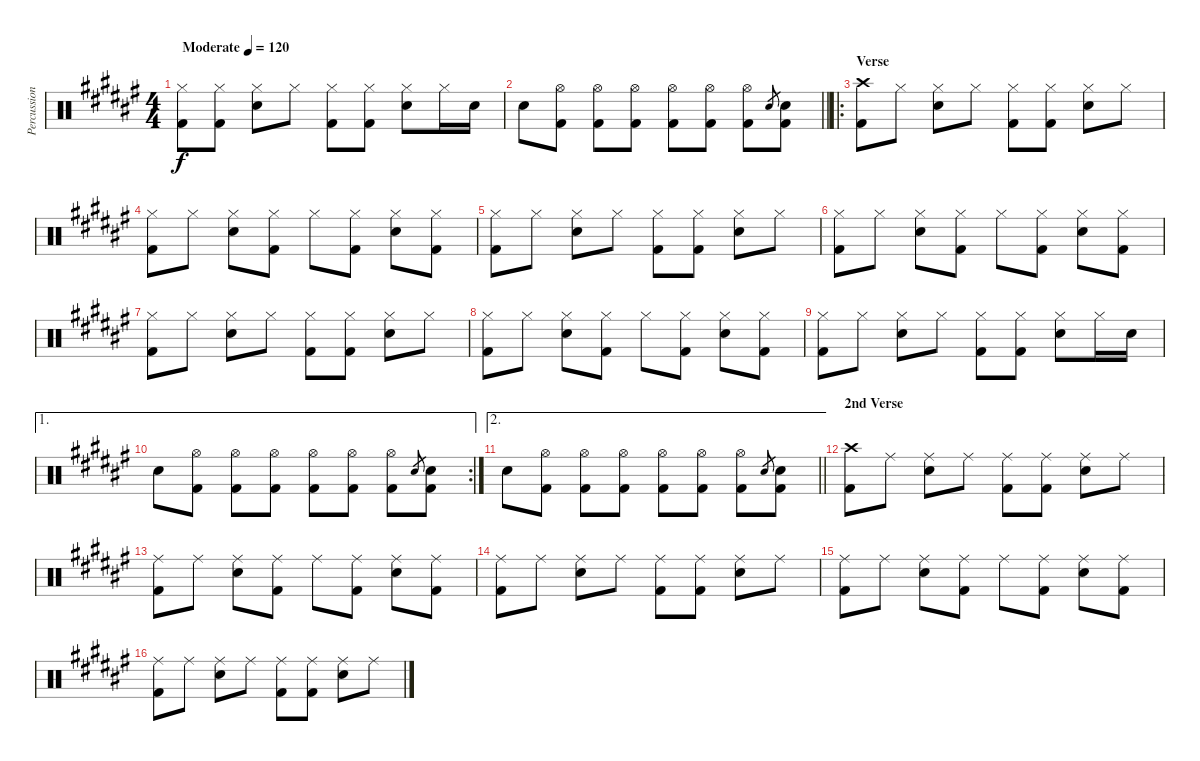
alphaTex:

\track ("Percussion" "Percussion") {instrument percussion}
\staff {score}
\articulation defaults
\ts (4 4)
\tempo (120 "Moderate")
\clef neutral
\ks f#
("Hi-Hat (closed)" "Kick (hit) 2").8{dy f} ("Hi-Hat (closed)" "Kick (hit) 2").8 ("Hi-Hat (closed)" "Electric Snare (hit)").8 "Hi-Hat (closed)".8 ("Hi-Hat (closed)" "Kick (hit) 2").8 ("Hi-Hat (closed)" "Kick (hit) 2").8 ("Hi-Hat (closed)" "Electric Snare (hit)").8 "Hi-Hat (closed)".16 "Electric Snare (hit)".16 |
\barLineRight lightlight "Electric Snare (hit)".8
("Hi-Hat (open)" "Kick (hit) 2").8 ("Hi-Hat (open)" "Kick (hit) 2").8 ("Hi-Hat (open)" "Kick (hit) 2").8 ("Hi-Hat (open)" "Kick (hit) 2").8 ("Hi-Hat (open)" "Kick (hit) 2").8 ("Hi-Hat (open)" "Kick (hit) 2").8 "Electric Snare (hit)".8{gr} ("Electric Snare (hit)" "Kick (hit) 2").8 |
\ro
\section ("" "Verse")
("Crash high (hit)" "Kick (hit) 2").8 "Hi-Hat (closed)".8 ("Hi-Hat (closed)" "Electric Snare (hit)").8 "Hi-Hat (closed)".8 ("Hi-Hat (closed)" "Kick (hit) 2").8 ("Hi-Hat (closed)" "Kick (hit) 2").8 ("Hi-Hat (closed)" "Electric Snare (hit)").8 "Hi-Hat (closed)".8 |
("Hi-Hat (closed)" "Kick (hit) 2").8 "Hi-Hat (closed)".8 ("Hi-Hat (closed)" "Electric Snare (hit)").8 ("Hi-Hat (closed)" "Kick (hit) 2").8 "Hi-Hat (closed)".8 ("Hi-Hat (closed)" "Kick (hit) 2").8 ("Hi-Hat (closed)" "Electric Snare (hit)").8 ("Hi-Hat (closed)" "Kick (hit) 2").8 |
("Hi-Hat (closed)" "Kick (hit) 2").8 "Hi-Hat (closed)".8 ("Hi-Hat (closed)" "Electric Snare (hit)").8 "Hi-Hat (closed)".8 ("Hi-Hat (closed)" "Kick (hit) 2").8 ("Hi-Hat (closed)" "Kick (hit) 2").8 ("Hi-Hat (closed)" "Electric Snare (hit)").8 "Hi-Hat (closed)".8 |
("Hi-Hat (closed)" "Kick (hit) 2").8 "Hi-Hat (closed)".8 ("Hi-Hat (closed)" "Electric Snare (hit)").8 ("Hi-Hat (closed)" "Kick (hit) 2").8 "Hi-Hat (closed)".8 ("Hi-Hat (closed)" "Kick (hit) 2").8 ("Hi-Hat (closed)" "Electric Snare (hit)").8 ("Hi-Hat (closed)" "Kick (hit) 2").8 |
("Hi-Hat (closed)" "Kick (hit) 2").8 "Hi-Hat (closed)".8 ("Hi-Hat (closed)" "Electric Snare (hit)").8 "Hi-Hat (closed)".8 ("Hi-Hat (closed)" "Kick (hit) 2").8 ("Hi-Hat (closed)" "Kick (hit) 2").8 ("Hi-Hat (closed)" "Electric Snare (hit)").8 "Hi-Hat (closed)".8 |
("Hi-Hat (closed)" "Kick (hit) 2").8 "Hi-Hat (closed)".8 ("Hi-Hat (closed)" "Electric Snare (hit)").8 ("Hi-Hat (closed)" "Kick (hit) 2").8 "Hi-Hat (closed)".8 ("Hi-Hat (closed)" "Kick (hit) 2").8 ("Hi-Hat (closed)" "Electric Snare (hit)").8 ("Hi-Hat (closed)" "Kick (hit) 2").8 |
("Hi-Hat (closed)" "Kick (hit) 2").8 "Hi-Hat (closed)".8 ("Hi-Hat (closed)" "Electric Snare (hit)").8 "Hi-Hat (closed)".8 ("Hi-Hat (closed)" "Kick (hit) 2").8 ("Hi-Hat (closed)" "Kick (hit) 2").8 ("Hi-Hat (closed)" "Electric Snare (hit)").8 "Hi-Hat (closed)".16 "Electric Snare (hit)".16 |
\ae 1
\rc 2 "Electric Snare (hit)".8
("Hi-Hat (open)" "Kick (hit) 2").8 ("Hi-Hat (open)" "Kick (hit) 2").8 ("Hi-Hat (open)" "Kick (hit) 2").8 ("Hi-Hat (open)" "Kick (hit) 2").8 ("Hi-Hat (open)" "Kick (hit) 2").8 ("Hi-Hat (open)" "Kick (hit) 2").8 "Electric Snare (hit)".8{gr} ("Electric Snare (hit)" "Kick (hit) 2").8 |
\ae 2
\barLineRight lightlight "Electric Snare (hit)".8
("Hi-Hat (open)" "Kick (hit) 2").8 ("Hi-Hat (open)" "Kick (hit) 2").8 ("Hi-Hat (open)" "Kick (hit) 2").8 ("Hi-Hat (open)" "Kick (hit) 2").8 ("Hi-Hat (open)" "Kick (hit) 2").8 ("Hi-Hat (open)" "Kick (hit) 2").8 "Electric Snare (hit)".8{gr} ("Electric Snare (hit)" "Kick (hit) 2").8 |
\section ("" "2nd Verse")
("Crash high (hit)" "Kick (hit) 2").8 "Ride (middle)".8 ("Ride (middle)" "Electric Snare (hit)").8 "Ride (middle)".8 ("Ride (middle)" "Kick (hit) 2").8 ("Ride (middle)" "Kick (hit) 2").8 ("Ride (middle)" "Electric Snare (hit)").8 "Ride (middle)".8 |
("Ride (middle)" "Kick (hit) 2").8 "Ride (middle)".8 ("Ride (middle)" "Electric Snare (hit)").8 ("Ride (middle)" "Kick (hit) 2").8 "Ride (middle)".8 ("Ride (middle)" "Kick (hit) 2").8 ("Ride (middle)" "Electric Snare (hit)").8 ("Ride (middle)" "Kick (hit) 2").8 |
("Ride (middle)" "Kick (hit) 2").8 "Ride (middle)".8 ("Ride (middle)" "Electric Snare (hit)").8 "Ride (middle)".8 ("Ride (middle)" "Kick (hit) 2").8 ("Ride (middle)" "Kick (hit) 2").8 ("Ride (middle)" "Electric Snare (hit)").8 "Ride (middle)".8 |
("Ride (middle)" "Kick (hit) 2").8 "Ride (middle)".8 ("Ride (middle)" "Electric Snare (hit)").8 ("Ride (middle)" "Kick (hit) 2").8 "Ride (middle)".8 ("Ride (middle)" "Kick (hit) 2").8 ("Ride (middle)" "Electric Snare (hit)").8 ("Ride (middle)" "Kick (hit) 2").8 |
("Ride (middle)" "Kick (hit) 2").8 "Ride (middle)".8 ("Ride (middle)" "Electric Snare (hit)").8 "Ride (middle)".8 ("Ride (middle)" "Kick (hit) 2").8 ("Ride (middle)" "Kick (hit) 2").8 ("Ride (middle)" "Electric Snare (hit)").8 "Ride (middle)".8
